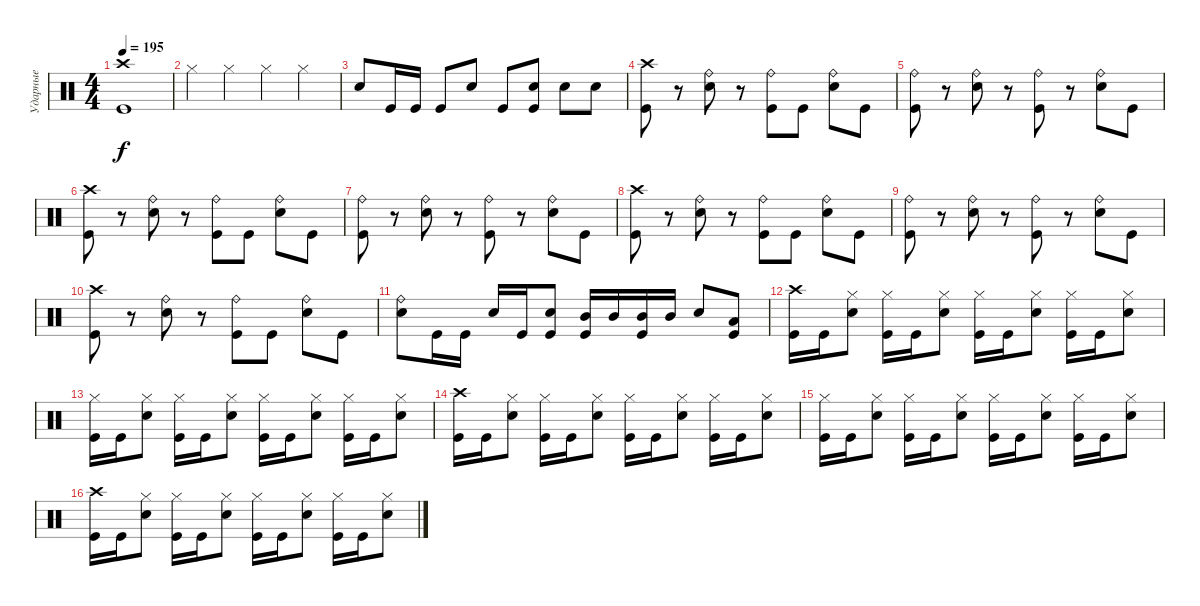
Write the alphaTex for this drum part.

\track ("Ударные" "Ударные") {instrument percussion}
\staff {score}
\articulation defaults
\ts (4 4)
\tempo 195
\clef neutral
\ks c
("Crash high (hit)" "Kick (hit)").1{dy f} |
"Hi-Hat (closed)".4 "Hi-Hat (closed)".4 "Hi-Hat (closed)".4 "Hi-Hat (closed)".4 |
"Electric Snare (hit)".8 "Kick (hit)".16 "Kick (hit)".16 "Kick (hit)".8 "Electric Snare (hit)".8 "Kick (hit)".8 ("Electric Snare (hit)" "Kick (hit)").8 "Electric Snare (hit)".8 "Electric Snare (hit)".8 |
("Crash high (hit)" "Kick (hit)").8 r.8 ("Ride (bell)" "Electric Snare (hit)").8 r.8 ("Ride (bell)" "Kick (hit)").8 "Kick (hit)".8 ("Ride (bell)" "Electric Snare (hit)").8 "Kick (hit)".8 |
("Ride (bell)" "Kick (hit)").8 r.8 ("Ride (bell)" "Electric Snare (hit)").8 r.8 ("Ride (bell)" "Kick (hit)").8 r.8 ("Ride (bell)" "Electric Snare (hit)").8 "Kick (hit)".8 |
("Crash high (hit)" "Kick (hit)").8 r.8 ("Ride (bell)" "Electric Snare (hit)").8 r.8 ("Ride (bell)" "Kick (hit)").8 "Kick (hit)".8 ("Ride (bell)" "Electric Snare (hit)").8 "Kick (hit)".8 |
("Ride (bell)" "Kick (hit)").8 r.8 ("Ride (bell)" "Electric Snare (hit)").8 r.8 ("Ride (bell)" "Kick (hit)").8 r.8 ("Ride (bell)" "Electric Snare (hit)").8 "Kick (hit)".8 |
("Crash high (hit)" "Kick (hit)").8 r.8 ("Ride (bell)" "Electric Snare (hit)").8 r.8 ("Ride (bell)" "Kick (hit)").8 "Kick (hit)".8 ("Ride (bell)" "Electric Snare (hit)").8 "Kick (hit)".8 |
("Ride (bell)" "Kick (hit)").8 r.8 ("Ride (bell)" "Electric Snare (hit)").8 r.8 ("Ride (bell)" "Kick (hit)").8 r.8 ("Ride (bell)" "Electric Snare (hit)").8 "Kick (hit)".8 |
("Crash high (hit)" "Kick (hit)").8 r.8 ("Ride (bell)" "Electric Snare (hit)").8 r.8 ("Ride (bell)" "Kick (hit)").8 "Kick (hit)".8 ("Ride (bell)" "Electric Snare (hit)").8 "Kick (hit)".8 |
("Ride (bell)" "Electric Snare (hit)").8 "Kick (hit)".16 "Kick (hit)".16 "Electric Snare (hit)".16 "Kick (hit)".16 ("Electric Snare (hit)" "Kick (hit)").8 ("Mid Tom (hit)" "Kick (hit)").16 "Mid Tom (hit)".16 ("Mid Tom (hit)" "Kick (hit)").16 "Mid Tom (hit)".16 "Electric Snare (hit)".8 ("Low Tom (hit)" "Kick (hit)").8 |
("Crash high (hit)" "Kick (hit)").16 "Kick (hit)".16 ("Hi-Hat (closed)" "Electric Snare (hit)").8 ("Hi-Hat (closed)" "Kick (hit)").16 "Kick (hit)".16 ("Hi-Hat (closed)" "Electric Snare (hit)").8 ("Hi-Hat (closed)" "Kick (hit)").16 "Kick (hit)".16 ("Hi-Hat (closed)" "Electric Snare (hit)").8 ("Hi-Hat (closed)" "Kick (hit)").16 "Kick (hit)".16 ("Hi-Hat (closed)" "Electric Snare (hit)").8 |
("Hi-Hat (closed)" "Kick (hit)").16 "Kick (hit)".16 ("Hi-Hat (closed)" "Electric Snare (hit)").8 ("Hi-Hat (closed)" "Kick (hit)").16 "Kick (hit)".16 ("Hi-Hat (closed)" "Electric Snare (hit)").8 ("Hi-Hat (closed)" "Kick (hit)").16 "Kick (hit)".16 ("Hi-Hat (closed)" "Electric Snare (hit)").8 ("Hi-Hat (closed)" "Kick (hit)").16 "Kick (hit)".16 ("Hi-Hat (closed)" "Electric Snare (hit)").8 |
("Crash high (hit)" "Kick (hit)").16 "Kick (hit)".16 ("Hi-Hat (closed)" "Electric Snare (hit)").8 ("Hi-Hat (closed)" "Kick (hit)").16 "Kick (hit)".16 ("Hi-Hat (closed)" "Electric Snare (hit)").8 ("Hi-Hat (closed)" "Kick (hit)").16 "Kick (hit)".16 ("Hi-Hat (closed)" "Electric Snare (hit)").8 ("Hi-Hat (closed)" "Kick (hit)").16 "Kick (hit)".16 ("Hi-Hat (closed)" "Electric Snare (hit)").8 |
("Hi-Hat (closed)" "Kick (hit)").16 "Kick (hit)".16 ("Hi-Hat (closed)" "Electric Snare (hit)").8 ("Hi-Hat (closed)" "Kick (hit)").16 "Kick (hit)".16 ("Hi-Hat (closed)" "Electric Snare (hit)").8 ("Hi-Hat (closed)" "Kick (hit)").16 "Kick (hit)".16 ("Hi-Hat (closed)" "Electric Snare (hit)").8 ("Hi-Hat (closed)" "Kick (hit)").16 "Kick (hit)".16 ("Hi-Hat (closed)" "Electric Snare (hit)").8 |
("Crash high (hit)" "Kick (hit)").16 "Kick (hit)".16 ("Hi-Hat (closed)" "Electric Snare (hit)").8 ("Hi-Hat (closed)" "Kick (hit)").16 "Kick (hit)".16 ("Hi-Hat (closed)" "Electric Snare (hit)").8 ("Hi-Hat (closed)" "Kick (hit)").16 "Kick (hit)".16 ("Hi-Hat (closed)" "Electric Snare (hit)").8 ("Hi-Hat (closed)" "Kick (hit)").16 "Kick (hit)".16 ("Hi-Hat (closed)" "Electric Snare (hit)").8
